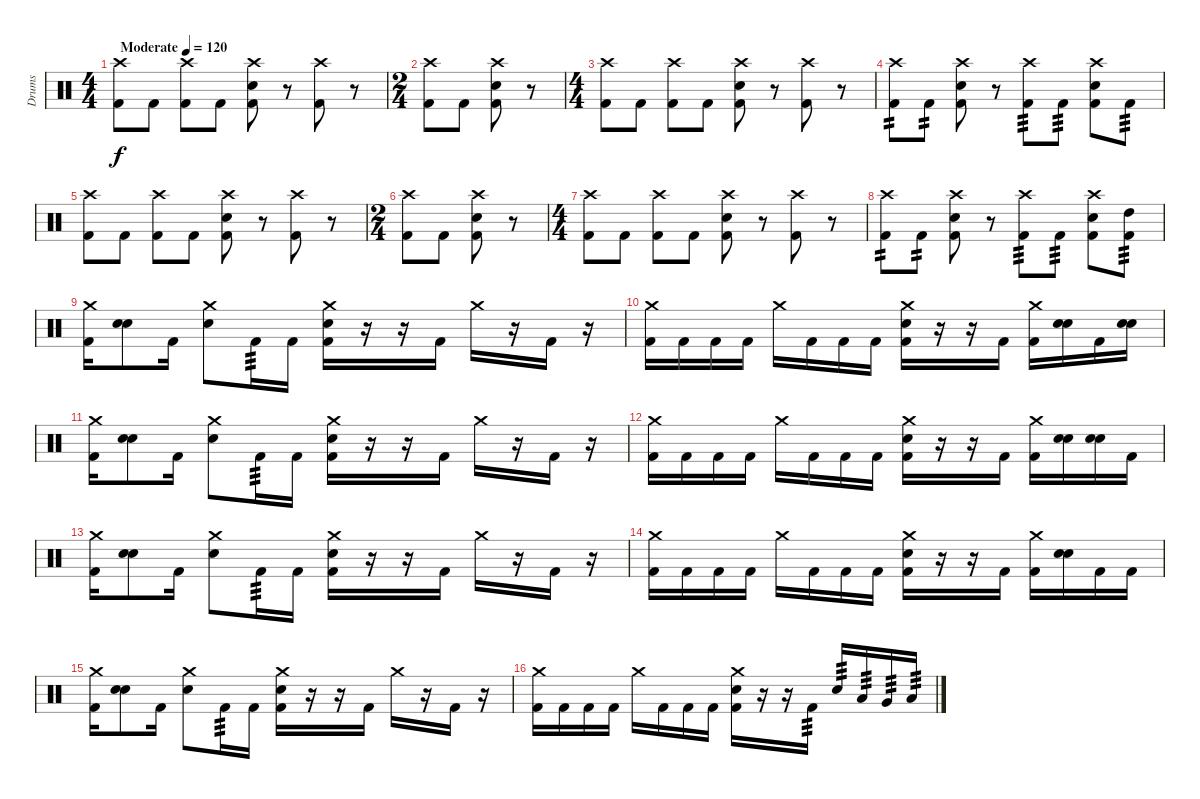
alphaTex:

\track ("Drums" "Drums") {instrument percussion}
\staff {score}
\articulation defaults
\ts (4 4)
\tempo (120 "Moderate")
\clef neutral
\ks c
("Crash high (hit)" "Kick (hit) 2").8{dy f} "Kick (hit) 2".8 ("Crash high (hit)" "Kick (hit) 2").8 "Kick (hit) 2".8 ("Crash high (hit)" "Electric Snare (hit)" "Kick (hit) 2").8 r.8 ("Crash high (hit)" "Kick (hit) 2").8 r.8 |
\ts (2 4)
("Crash high (hit)" "Kick (hit) 2").8 "Kick (hit) 2".8 ("Crash high (hit)" "Electric Snare (hit)" "Kick (hit) 2").8 r.8 |
\ts (4 4)
("Crash high (hit)" "Kick (hit) 2").8 "Kick (hit) 2".8 ("Crash high (hit)" "Kick (hit) 2").8 "Kick (hit) 2".8 ("Crash high (hit)" "Electric Snare (hit)" "Kick (hit) 2").8 r.8 ("Crash high (hit)" "Kick (hit) 2").8 r.8 |
("Crash high (hit)" "Kick (hit) 2").8{tp 2} "Kick (hit) 2".8{tp 2} ("Crash high (hit)" "Electric Snare (hit)" "Kick (hit) 2").8 r.8 ("Crash high (hit)" "Kick (hit) 2").8{tp 3} "Kick (hit) 2".8{tp 3} ("Crash high (hit)" "Electric Snare (hit)" "Kick (hit) 2").8 "Kick (hit) 2".8{tp 3} |
("Crash high (hit)" "Kick (hit) 2").8 "Kick (hit) 2".8 ("Crash high (hit)" "Kick (hit) 2").8 "Kick (hit) 2".8 ("Crash high (hit)" "Electric Snare (hit)" "Kick (hit) 2").8 r.8 ("Crash high (hit)" "Kick (hit) 2").8 r.8 |
\ts (2 4)
("Crash high (hit)" "Kick (hit) 2").8 "Kick (hit) 2".8 ("Crash high (hit)" "Electric Snare (hit)" "Kick (hit) 2").8 r.8 |
\ts (4 4)
("Crash high (hit)" "Kick (hit) 2").8 "Kick (hit) 2".8 ("Crash high (hit)" "Kick (hit) 2").8 "Kick (hit) 2".8 ("Crash high (hit)" "Electric Snare (hit)" "Kick (hit) 2").8 r.8 ("Crash high (hit)" "Kick (hit) 2").8 r.8 |
("Crash high (hit)" "Kick (hit) 2").8{tp 2} "Kick (hit) 2".8{tp 2} ("Crash high (hit)" "Electric Snare (hit)" "Kick (hit) 2").8 r.8 ("Crash high (hit)" "Kick (hit) 2").8{tp 3} "Kick (hit) 2".8{tp 3} ("Crash high (hit)" "Electric Snare (hit)" "Kick (hit) 2").8 ("High Tom (hit)" "Kick (hit) 2").8{tp 3} |
("Crash medium (hit)" "Kick (hit) 2").16 ("Electric Snare (hit)" "Electric Snare (hit)").8 "Kick (hit) 2".16 ("Crash medium (hit)" "Electric Snare (hit)").8 "Kick (hit) 2".16{tp 3} "Kick (hit) 2".16 ("Crash medium (hit)" "Electric Snare (hit)" "Kick (hit) 2").16 r.16 r.16 "Kick (hit) 2".16 "Crash medium (hit)".16 r.16 "Kick (hit) 2".16 r.16 |
("Crash medium (hit)" "Kick (hit) 2").16 "Kick (hit) 2".16 "Kick (hit) 2".16 "Kick (hit) 2".16 "Crash medium (hit)".16 "Kick (hit) 2".16 "Kick (hit) 2".16 "Kick (hit) 2".16 ("Crash medium (hit)" "Electric Snare (hit)" "Kick (hit) 2").16 r.16 r.16 "Kick (hit) 2".16 ("Crash medium (hit)" "Kick (hit) 2").16 ("Electric Snare (hit)" "Electric Snare (hit)").16 "Kick (hit) 2".16 ("Electric Snare (hit)" "Electric Snare (hit)").16 |
("Crash medium (hit)" "Kick (hit) 2").16 ("Electric Snare (hit)" "Electric Snare (hit)").8 "Kick (hit) 2".16 ("Crash medium (hit)" "Electric Snare (hit)").8 "Kick (hit) 2".16{tp 3} "Kick (hit) 2".16 ("Crash medium (hit)" "Electric Snare (hit)" "Kick (hit) 2").16 r.16 r.16 "Kick (hit) 2".16 "Crash medium (hit)".16 r.16 "Kick (hit) 2".16 r.16 |
("Crash medium (hit)" "Kick (hit) 2").16 "Kick (hit) 2".16 "Kick (hit) 2".16 "Kick (hit) 2".16 "Crash medium (hit)".16 "Kick (hit) 2".16 "Kick (hit) 2".16 "Kick (hit) 2".16 ("Crash medium (hit)" "Electric Snare (hit)" "Kick (hit) 2").16 r.16 r.16 "Kick (hit) 2".16 ("Crash medium (hit)" "Kick (hit) 2").16 ("Electric Snare (hit)" "Electric Snare (hit)").16 ("Electric Snare (hit)" "Electric Snare (hit)").16 "Kick (hit) 2".16 |
("Crash medium (hit)" "Kick (hit) 2").16 ("Electric Snare (hit)" "Electric Snare (hit)").8 "Kick (hit) 2".16 ("Crash medium (hit)" "Electric Snare (hit)").8 "Kick (hit) 2".16{tp 3} "Kick (hit) 2".16 ("Crash medium (hit)" "Electric Snare (hit)" "Kick (hit) 2").16 r.16 r.16 "Kick (hit) 2".16 "Crash medium (hit)".16 r.16 "Kick (hit) 2".16 r.16 |
("Crash medium (hit)" "Kick (hit) 2").16 "Kick (hit) 2".16 "Kick (hit) 2".16 "Kick (hit) 2".16 "Crash medium (hit)".16 "Kick (hit) 2".16 "Kick (hit) 2".16 "Kick (hit) 2".16 ("Crash medium (hit)" "Electric Snare (hit)" "Kick (hit) 2").16 r.16 r.16 "Kick (hit) 2".16 ("Crash medium (hit)" "Kick (hit) 2").16 ("Electric Snare (hit)" "Electric Snare (hit)").16 "Kick (hit) 2".16 "Kick (hit) 2".16 |
("Crash medium (hit)" "Kick (hit) 2").16 ("Electric Snare (hit)" "Electric Snare (hit)").8 "Kick (hit) 2".16 ("Crash medium (hit)" "Electric Snare (hit)").8 "Kick (hit) 2".16{tp 3} "Kick (hit) 2".16 ("Crash medium (hit)" "Electric Snare (hit)" "Kick (hit) 2").16 r.16 r.16 "Kick (hit) 2".16 "Crash medium (hit)".16 r.16 "Kick (hit) 2".16 r.16 |
("Crash medium (hit)" "Kick (hit) 2").16 "Kick (hit) 2".16 "Kick (hit) 2".16 "Kick (hit) 2".16 "Crash medium (hit)".16 "Kick (hit) 2".16 "Kick (hit) 2".16 "Kick (hit) 2".16 ("Crash medium (hit)" "Electric Snare (hit)" "Kick (hit) 2").16 r.16 r.16 "Kick (hit) 2".16{tp 3} "Electric Snare (hit)".16{tp 3} "Low Floor Tom (hit)".16{tp 3} "Very Low Tom (hit)".16{tp 3} "Low Tom (hit)".16{tp 3}
